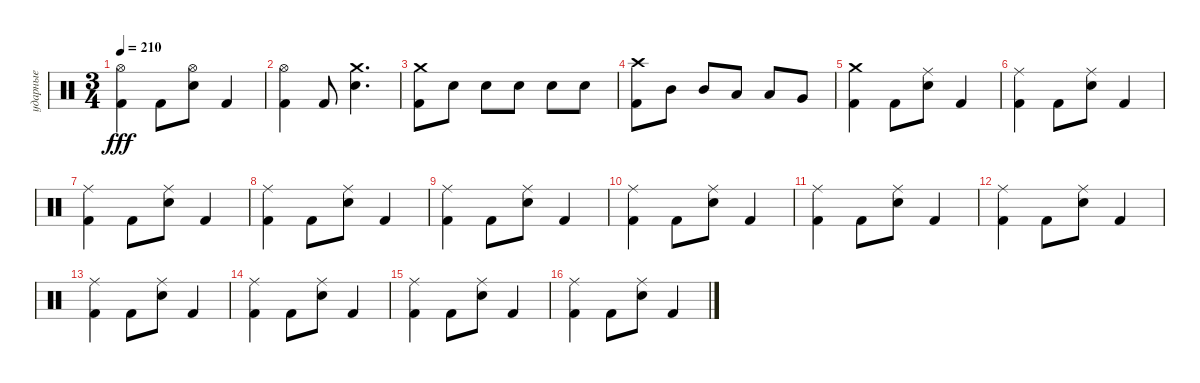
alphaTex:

\track ("ударные" "ударные") {instrument percussion}
\staff {score}
\articulation defaults
\ts (3 4)
\tempo 210
\clef neutral
\ks c
("Hi-Hat (open)" "Kick (hit) 2").4{dy fff} "Kick (hit) 2".8 ("Hi-Hat (open)" "Snare (hit) 2").8 "Kick (hit) 2".4 |
("Hi-Hat (open)" "Kick (hit) 2").4 "Kick (hit) 2".8 ("Crash medium (hit)" "Snare (hit) 2").4{d} |
("Crash medium (hit)" "Kick (hit) 2").8 "Snare (hit) 2".8 "Snare (hit) 2".8 "Snare (hit) 2".8 "Snare (hit) 2".8 "Snare (hit) 2".8 |
("Crash high (hit)" "Kick (hit) 2").8 "Mid Tom (hit)".8 "Mid Tom (hit)".8 "Low Tom (hit)".8 "Low Tom (hit)".8 "Very Low Tom (hit)".8 |
("Crash medium (hit)" "Kick (hit) 2").4 "Kick (hit) 2".8 ("Ride (middle)" "Snare (hit) 2").8 "Kick (hit) 2".4 |
("Ride (middle)" "Kick (hit) 2").4 "Kick (hit) 2".8 ("Ride (middle)" "Snare (hit) 2").8 "Kick (hit) 2".4 |
("Ride (middle)" "Kick (hit) 2").4 "Kick (hit) 2".8 ("Ride (middle)" "Snare (hit) 2").8 "Kick (hit) 2".4 |
("Ride (middle)" "Kick (hit) 2").4 "Kick (hit) 2".8 ("Ride (middle)" "Snare (hit) 2").8 "Kick (hit) 2".4 |
("Ride (middle)" "Kick (hit) 2").4 "Kick (hit) 2".8 ("Ride (middle)" "Snare (hit) 2").8 "Kick (hit) 2".4 |
("Ride (middle)" "Kick (hit) 2").4 "Kick (hit) 2".8 ("Ride (middle)" "Snare (hit) 2").8 "Kick (hit) 2".4 |
("Ride (middle)" "Kick (hit) 2").4 "Kick (hit) 2".8 ("Ride (middle)" "Snare (hit) 2").8 "Kick (hit) 2".4 |
("Ride (middle)" "Kick (hit) 2").4 "Kick (hit) 2".8 ("Ride (middle)" "Snare (hit) 2").8 "Kick (hit) 2".4 |
("Ride (middle)" "Kick (hit) 2").4 "Kick (hit) 2".8 ("Ride (middle)" "Snare (hit) 2").8 "Kick (hit) 2".4 |
("Ride (middle)" "Kick (hit) 2").4 "Kick (hit) 2".8 ("Ride (middle)" "Snare (hit) 2").8 "Kick (hit) 2".4 |
("Ride (middle)" "Kick (hit) 2").4 "Kick (hit) 2".8 ("Ride (middle)" "Snare (hit) 2").8 "Kick (hit) 2".4 |
("Ride (middle)" "Kick (hit) 2").4 "Kick (hit) 2".8 ("Ride (middle)" "Snare (hit) 2").8 "Kick (hit) 2".4
